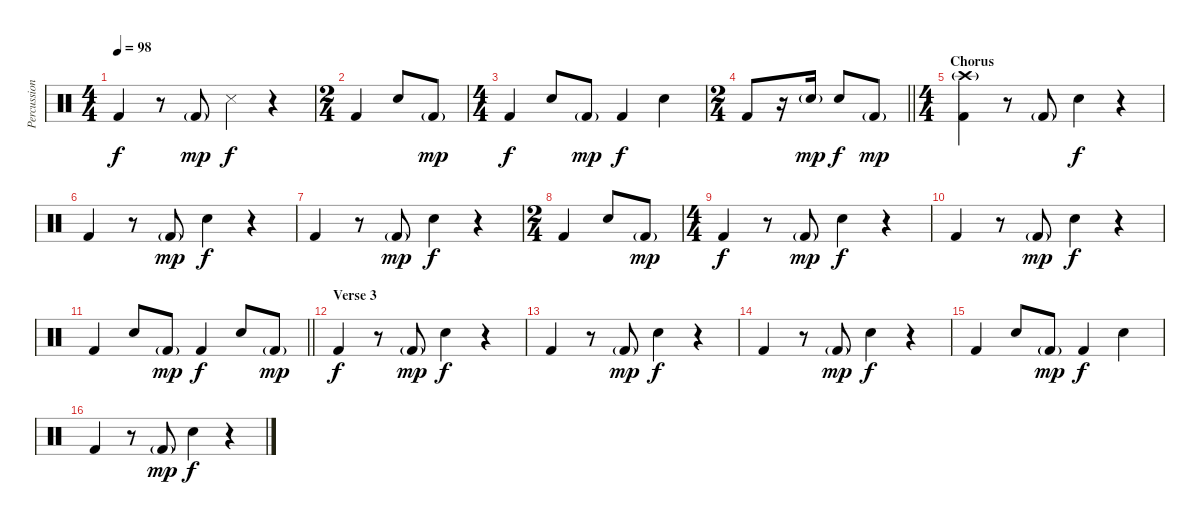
\track ("Percussion" "Percussion") {instrument percussion}
\staff {score}
\articulation defaults
\ts (4 4)
\tempo 98
\clef neutral
\ks c "Kick (hit) 2".4{dy f}
r.8 "Kick (hit) 2"{g}.8{dy mp} "Snare (side stick) 3".4{dy f} r.4 |
\ts (2 4)
"Kick (hit) 2".4 "Snare (hit) 2".8 "Kick (hit) 2"{g}.8{dy mp} |
\ts (4 4)
"Kick (hit) 2".4{dy f} "Snare (hit) 2".8 "Kick (hit) 2"{g}.8{dy mp} "Kick (hit) 2".4{dy f} "Snare (hit) 2".4 |
\ts (2 4)
\barLineRight lightlight "Kick (hit) 2".8
r.16 "Snare (hit) 2"{g}.16{dy mp} "Snare (hit) 2".8{dy f} "Kick (hit) 2"{g}.8{dy mp} |
\ts (4 4)
\section ("" "Chorus")
("Crash high (hit)"{g} "Kick (hit) 2").4 r.8 "Kick (hit) 2"{g}.8 "Snare (hit) 2".4{dy f} r.4 |
"Kick (hit) 2".4 r.8 "Kick (hit) 2"{g}.8{dy mp} "Snare (hit) 2".4{dy f} r.4 |
"Kick (hit) 2".4 r.8 "Kick (hit) 2"{g}.8{dy mp} "Snare (hit) 2".4{dy f} r.4 |
\ts (2 4)
"Kick (hit) 2".4 "Snare (hit) 2".8 "Kick (hit) 2"{g}.8{dy mp} |
\ts (4 4)
"Kick (hit) 2".4{dy f} r.8 "Kick (hit) 2"{g}.8{dy mp} "Snare (hit) 2".4{dy f} r.4 |
"Kick (hit) 2".4 r.8 "Kick (hit) 2"{g}.8{dy mp} "Snare (hit) 2".4{dy f} r.4 |
\barLineRight lightlight "Kick (hit) 2".4 "Snare (hit) 2".8 "Kick (hit) 2"{g}.8{dy mp} "Kick (hit) 2".4{dy f} "Snare (hit) 2".8 "Kick (hit) 2"{g}.8{dy mp}
|
\section ("" "Verse 3")
"Kick (hit) 2".4{dy f} r.8 "Kick (hit) 2"{g}.8{dy mp} "Snare (hit) 2".4{dy f} r.4 |
"Kick (hit) 2".4 r.8 "Kick (hit) 2"{g}.8{dy mp} "Snare (hit) 2".4{dy f} r.4 |
"Kick (hit) 2".4 r.8 "Kick (hit) 2"{g}.8{dy mp} "Snare (hit) 2".4{dy f} r.4 |
"Kick (hit) 2".4 "Snare (hit) 2".8 "Kick (hit) 2"{g}.8{dy mp} "Kick (hit) 2".4{dy f} "Snare (hit) 2".4 |
"Kick (hit) 2".4 r.8 "Kick (hit) 2"{g}.8{dy mp} "Snare (hit) 2".4{dy f} r.4
